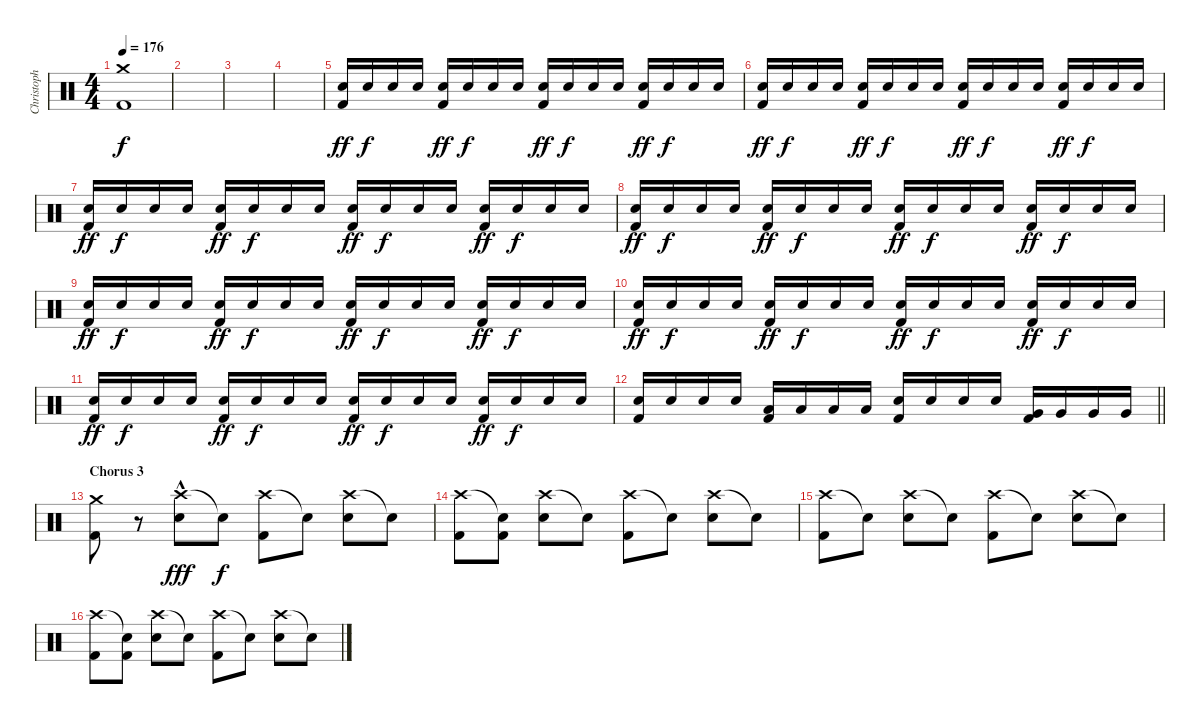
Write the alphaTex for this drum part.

\track ("Christoph" "Christoph") {instrument percussion}
\staff {score}
\articulation defaults
\ts (4 4)
\tempo 176
\clef neutral
\ks c
("Crash medium (hit)" "Kick (hit) 2").1{dy f} |
|
|
|
("Snare (hit) 2" "Kick (hit) 2").16{dy ff volume 7} "Snare (hit) 2".16{dy f} "Snare (hit) 2".16 "Snare (hit) 2".16 ("Snare (hit) 2" "Kick (hit) 2").16{dy ff} "Snare (hit) 2".16{dy f} "Snare (hit) 2".16 "Snare (hit) 2".16 ("Snare (hit) 2" "Kick (hit) 2").16{dy ff} "Snare (hit) 2".16{dy f} "Snare (hit) 2".16 "Snare (hit) 2".16 ("Snare (hit) 2" "Kick (hit) 2").16{dy ff} "Snare (hit) 2".16{dy f} "Snare (hit) 2".16 "Snare (hit) 2".16 |
("Snare (hit) 2" "Kick (hit) 2").16{dy ff volume 9} "Snare (hit) 2".16{dy f} "Snare (hit) 2".16 "Snare (hit) 2".16 ("Snare (hit) 2" "Kick (hit) 2").16{dy ff} "Snare (hit) 2".16{dy f} "Snare (hit) 2".16 "Snare (hit) 2".16 ("Snare (hit) 2" "Kick (hit) 2").16{dy ff} "Snare (hit) 2".16{dy f} "Snare (hit) 2".16 "Snare (hit) 2".16 ("Snare (hit) 2" "Kick (hit) 2").16{dy ff} "Snare (hit) 2".16{dy f} "Snare (hit) 2".16 "Snare (hit) 2".16 |
("Snare (hit) 2" "Kick (hit) 2").16{dy ff} "Snare (hit) 2".16{dy f} "Snare (hit) 2".16 "Snare (hit) 2".16 ("Snare (hit) 2" "Kick (hit) 2").16{dy ff} "Snare (hit) 2".16{dy f} "Snare (hit) 2".16 "Snare (hit) 2".16 ("Snare (hit) 2" "Kick (hit) 2").16{dy ff} "Snare (hit) 2".16{dy f} "Snare (hit) 2".16 "Snare (hit) 2".16 ("Snare (hit) 2" "Kick (hit) 2").16{dy ff} "Snare (hit) 2".16{dy f} "Snare (hit) 2".16 "Snare (hit) 2".16 |
("Snare (hit) 2" "Kick (hit) 2").16{dy ff volume 11} "Snare (hit) 2".16{dy f} "Snare (hit) 2".16 "Snare (hit) 2".16 ("Snare (hit) 2" "Kick (hit) 2").16{dy ff} "Snare (hit) 2".16{dy f} "Snare (hit) 2".16 "Snare (hit) 2".16 ("Snare (hit) 2" "Kick (hit) 2").16{dy ff} "Snare (hit) 2".16{dy f} "Snare (hit) 2".16 "Snare (hit) 2".16 ("Snare (hit) 2" "Kick (hit) 2").16{dy ff} "Snare (hit) 2".16{dy f} "Snare (hit) 2".16 "Snare (hit) 2".16 |
("Snare (hit) 2" "Kick (hit) 2").16{dy ff} "Snare (hit) 2".16{dy f} "Snare (hit) 2".16 "Snare (hit) 2".16 ("Snare (hit) 2" "Kick (hit) 2").16{dy ff} "Snare (hit) 2".16{dy f} "Snare (hit) 2".16 "Snare (hit) 2".16 ("Snare (hit) 2" "Kick (hit) 2").16{dy ff} "Snare (hit) 2".16{dy f} "Snare (hit) 2".16 "Snare (hit) 2".16 ("Snare (hit) 2" "Kick (hit) 2").16{dy ff} "Snare (hit) 2".16{dy f} "Snare (hit) 2".16 "Snare (hit) 2".16 |
("Snare (hit) 2" "Kick (hit) 2").16{dy ff volume 12} "Snare (hit) 2".16{dy f} "Snare (hit) 2".16 "Snare (hit) 2".16 ("Snare (hit) 2" "Kick (hit) 2").16{dy ff} "Snare (hit) 2".16{dy f} "Snare (hit) 2".16 "Snare (hit) 2".16 ("Snare (hit) 2" "Kick (hit) 2").16{dy ff} "Snare (hit) 2".16{dy f} "Snare (hit) 2".16 "Snare (hit) 2".16 ("Snare (hit) 2" "Kick (hit) 2").16{dy ff} "Snare (hit) 2".16{dy f} "Snare (hit) 2".16 "Snare (hit) 2".16 |
("Snare (hit) 2" "Kick (hit) 2").16{dy ff} "Snare (hit) 2".16{dy f} "Snare (hit) 2".16 "Snare (hit) 2".16 ("Snare (hit) 2" "Kick (hit) 2").16{dy ff} "Snare (hit) 2".16{dy f} "Snare (hit) 2".16 "Snare (hit) 2".16 ("Snare (hit) 2" "Kick (hit) 2").16{dy ff volume 14} "Snare (hit) 2".16{dy f} "Snare (hit) 2".16 "Snare (hit) 2".16 ("Snare (hit) 2" "Kick (hit) 2").16{dy ff} "Snare (hit) 2".16{dy f} "Snare (hit) 2".16 "Snare (hit) 2".16 |
\barLineRight lightlight
("Snare (hit) 2" "Kick (hit) 2").16 "Snare (hit) 2".16 "Snare (hit) 2".16 "Snare (hit) 2".16 ("Low Tom (hit)" "Kick (hit) 2").16 "Low Tom (hit)".16 "Low Tom (hit)".16 "Low Tom (hit)".16 ("Snare (hit) 2" "Kick (hit) 2").16 "Snare (hit) 2".16 "Snare (hit) 2".16 "Snare (hit) 2".16 ("Very Low Tom (hit)" "Kick (hit) 2").16 "Very Low Tom (hit)".16 "Very Low Tom (hit)".16 "Very Low Tom (hit)".16 |
\section ("" "Chorus 3")
("Crash medium (hit)" "Kick (hit) 2").8 r.8 ("Crash high (hit)"{hac} "Snare (hit) 2").8{dy fff} "Snare (hit)"{t}.8{dy f} ("Crash high (hit)" "Kick (hit) 2").8 "Snare (hit)"{t}.8 ("Crash high (hit)" "Snare (hit) 2").8 "Snare (hit)"{t}.8 |
("Crash high (hit)" "Kick (hit) 2").8 ("Snare (hit)"{t} "Kick (hit) 2").8 ("Crash high (hit)" "Snare (hit) 2").8 "Snare (hit)"{t}.8 ("Crash high (hit)" "Kick (hit) 2").8 "Snare (hit)"{t}.8 ("Crash high (hit)" "Snare (hit) 2").8 "Snare (hit)"{t}.8 |
("Crash high (hit)" "Kick (hit) 2").8 "Snare (hit)"{t}.8 ("Crash high (hit)" "Snare (hit) 2").8 "Snare (hit)"{t}.8 ("Crash high (hit)" "Kick (hit) 2").8 "Snare (hit)"{t}.8 ("Crash high (hit)" "Snare (hit) 2").8 "Snare (hit)"{t}.8 |
("Crash high (hit)" "Kick (hit) 2").8 ("Snare (hit)"{t} "Kick (hit) 2").8 ("Crash high (hit)" "Snare (hit) 2").8 "Snare (hit)"{t}.8 ("Crash high (hit)" "Kick (hit) 2").8 "Snare (hit)"{t}.8 ("Crash high (hit)" "Snare (hit) 2").8 "Snare (hit)"{t}.8
